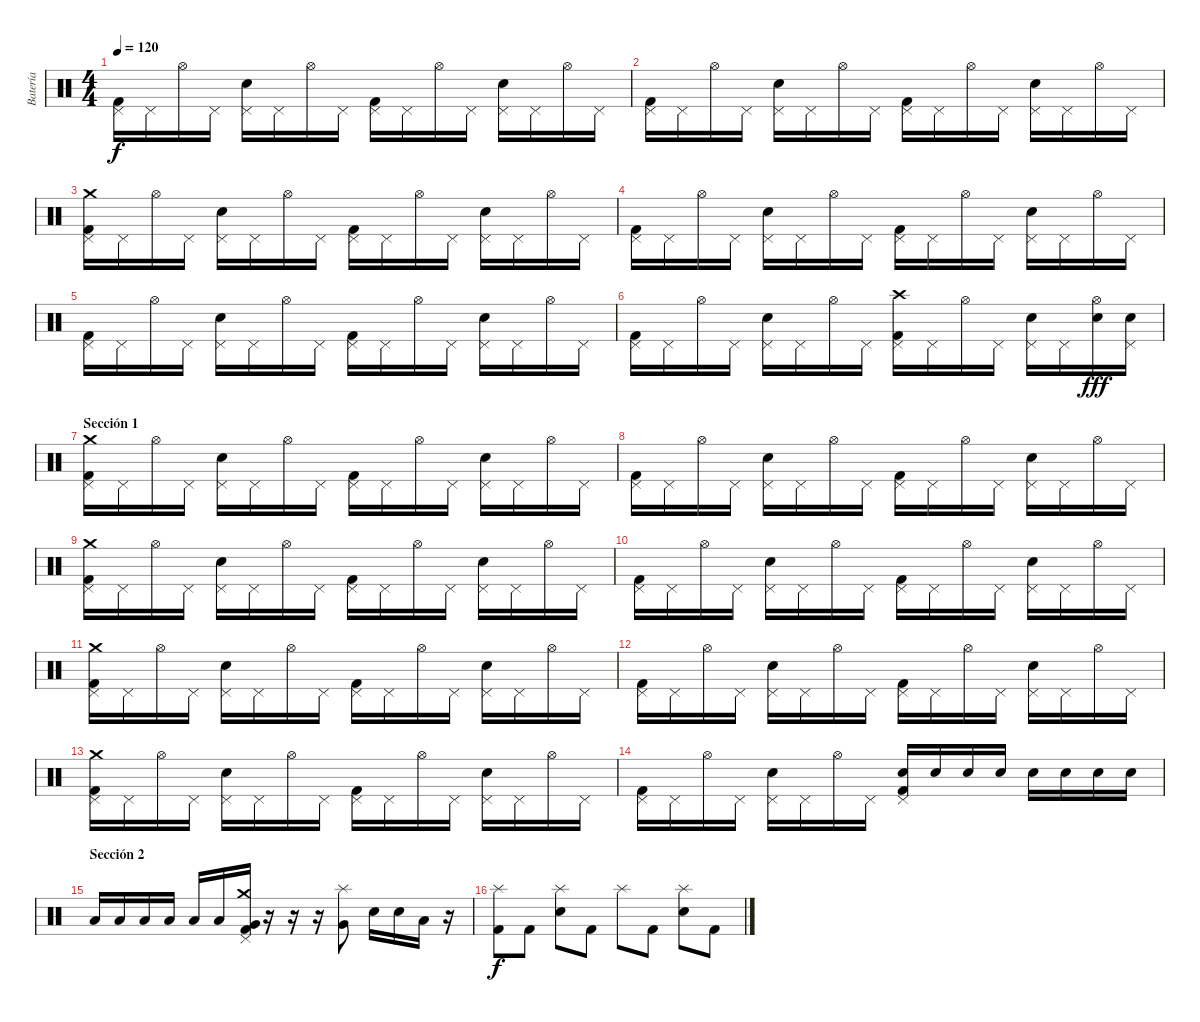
\track ("Batería" "Batería") {instrument percussion}
\staff {score}
\articulation defaults
\ts (4 4)
\tempo 120
\clef neutral
\ks c
("Pedal Hi-Hat (hit)" "Kick (hit) 2").16{dy f} "Pedal Hi-Hat (hit)".16 "Hi-Hat (open)".16 "Pedal Hi-Hat (hit)".16 ("Pedal Hi-Hat (hit)" "Electric Snare (hit)").16 "Pedal Hi-Hat (hit)".16 "Hi-Hat (open)".16 "Pedal Hi-Hat (hit)".16 ("Pedal Hi-Hat (hit)" "Kick (hit) 2").16 "Pedal Hi-Hat (hit)".16 "Hi-Hat (open)".16 "Pedal Hi-Hat (hit)".16 ("Pedal Hi-Hat (hit)" "Electric Snare (hit)").16 "Pedal Hi-Hat (hit)".16 "Hi-Hat (open)".16 "Pedal Hi-Hat (hit)".16 |
("Pedal Hi-Hat (hit)" "Kick (hit) 2").16 "Pedal Hi-Hat (hit)".16 "Hi-Hat (open)".16 "Pedal Hi-Hat (hit)".16 ("Pedal Hi-Hat (hit)" "Electric Snare (hit)").16 "Pedal Hi-Hat (hit)".16 "Hi-Hat (open)".16 "Pedal Hi-Hat (hit)".16 ("Pedal Hi-Hat (hit)" "Kick (hit) 2").16 "Pedal Hi-Hat (hit)".16 "Hi-Hat (open)".16 "Pedal Hi-Hat (hit)".16 ("Pedal Hi-Hat (hit)" "Electric Snare (hit)").16 "Pedal Hi-Hat (hit)".16 "Hi-Hat (open)".16 "Pedal Hi-Hat (hit)".16 |
("Pedal Hi-Hat (hit)" "Crash medium (hit)" "Kick (hit) 2").16 "Pedal Hi-Hat (hit)".16 "Hi-Hat (open)".16 "Pedal Hi-Hat (hit)".16 ("Pedal Hi-Hat (hit)" "Electric Snare (hit)").16 "Pedal Hi-Hat (hit)".16 "Hi-Hat (open)".16 "Pedal Hi-Hat (hit)".16 ("Pedal Hi-Hat (hit)" "Kick (hit) 2").16 "Pedal Hi-Hat (hit)".16 "Hi-Hat (open)".16 "Pedal Hi-Hat (hit)".16 ("Pedal Hi-Hat (hit)" "Electric Snare (hit)").16 "Pedal Hi-Hat (hit)".16 "Hi-Hat (open)".16 "Pedal Hi-Hat (hit)".16 |
("Pedal Hi-Hat (hit)" "Kick (hit) 2").16 "Pedal Hi-Hat (hit)".16 "Hi-Hat (open)".16 "Pedal Hi-Hat (hit)".16 ("Pedal Hi-Hat (hit)" "Electric Snare (hit)").16 "Pedal Hi-Hat (hit)".16 "Hi-Hat (open)".16 "Pedal Hi-Hat (hit)".16 ("Pedal Hi-Hat (hit)" "Kick (hit) 2").16 "Pedal Hi-Hat (hit)".16 "Hi-Hat (open)".16 "Pedal Hi-Hat (hit)".16 ("Pedal Hi-Hat (hit)" "Electric Snare (hit)").16 "Pedal Hi-Hat (hit)".16 "Hi-Hat (open)".16 "Pedal Hi-Hat (hit)".16 |
("Pedal Hi-Hat (hit)" "Kick (hit) 2").16 "Pedal Hi-Hat (hit)".16 "Hi-Hat (open)".16 "Pedal Hi-Hat (hit)".16 ("Pedal Hi-Hat (hit)" "Electric Snare (hit)").16 "Pedal Hi-Hat (hit)".16 "Hi-Hat (open)".16 "Pedal Hi-Hat (hit)".16 ("Pedal Hi-Hat (hit)" "Kick (hit) 2").16 "Pedal Hi-Hat (hit)".16 "Hi-Hat (open)".16 "Pedal Hi-Hat (hit)".16 ("Pedal Hi-Hat (hit)" "Electric Snare (hit)").16 "Pedal Hi-Hat (hit)".16 "Hi-Hat (open)".16 "Pedal Hi-Hat (hit)".16 |
("Pedal Hi-Hat (hit)" "Kick (hit) 2").16 "Pedal Hi-Hat (hit)".16 "Hi-Hat (open)".16 "Pedal Hi-Hat (hit)".16 ("Pedal Hi-Hat (hit)" "Electric Snare (hit)").16 "Pedal Hi-Hat (hit)".16 "Hi-Hat (open)".16 "Pedal Hi-Hat (hit)".16 ("Pedal Hi-Hat (hit)" "Crash high (hit)" "Kick (hit) 2").16 "Pedal Hi-Hat (hit)".16 "Hi-Hat (open)".16 "Pedal Hi-Hat (hit)".16 ("Pedal Hi-Hat (hit)" "Electric Snare (hit)").16 "Pedal Hi-Hat (hit)".16 ("Hi-Hat (open)" "Electric Snare (hit)").16{dy fff} ("Pedal Hi-Hat (hit)" "Electric Snare (hit)").16 |
\section ("" "Sección 1")
("Pedal Hi-Hat (hit)" "Crash medium (hit)" "Kick (hit) 2").16 "Pedal Hi-Hat (hit)".16 "Hi-Hat (open)".16 "Pedal Hi-Hat (hit)".16 ("Pedal Hi-Hat (hit)" "Electric Snare (hit)").16 "Pedal Hi-Hat (hit)".16 "Hi-Hat (open)".16 "Pedal Hi-Hat (hit)".16 ("Pedal Hi-Hat (hit)" "Kick (hit) 2").16 "Pedal Hi-Hat (hit)".16 "Hi-Hat (open)".16 "Pedal Hi-Hat (hit)".16 ("Pedal Hi-Hat (hit)" "Electric Snare (hit)").16 "Pedal Hi-Hat (hit)".16 "Hi-Hat (open)".16 "Pedal Hi-Hat (hit)".16 |
("Pedal Hi-Hat (hit)" "Kick (hit) 2").16 "Pedal Hi-Hat (hit)".16 "Hi-Hat (open)".16 "Pedal Hi-Hat (hit)".16 ("Pedal Hi-Hat (hit)" "Electric Snare (hit)").16 "Pedal Hi-Hat (hit)".16 "Hi-Hat (open)".16 "Pedal Hi-Hat (hit)".16 ("Pedal Hi-Hat (hit)" "Kick (hit) 2").16 "Pedal Hi-Hat (hit)".16 "Hi-Hat (open)".16 "Pedal Hi-Hat (hit)".16 ("Pedal Hi-Hat (hit)" "Electric Snare (hit)").16 "Pedal Hi-Hat (hit)".16 "Hi-Hat (open)".16 "Pedal Hi-Hat (hit)".16 |
("Pedal Hi-Hat (hit)" "Crash medium (hit)" "Kick (hit) 2").16 "Pedal Hi-Hat (hit)".16 "Hi-Hat (open)".16 "Pedal Hi-Hat (hit)".16 ("Pedal Hi-Hat (hit)" "Electric Snare (hit)").16 "Pedal Hi-Hat (hit)".16 "Hi-Hat (open)".16 "Pedal Hi-Hat (hit)".16 ("Pedal Hi-Hat (hit)" "Kick (hit) 2").16 "Pedal Hi-Hat (hit)".16 "Hi-Hat (open)".16 "Pedal Hi-Hat (hit)".16 ("Pedal Hi-Hat (hit)" "Electric Snare (hit)").16 "Pedal Hi-Hat (hit)".16 "Hi-Hat (open)".16 "Pedal Hi-Hat (hit)".16 |
("Pedal Hi-Hat (hit)" "Kick (hit) 2").16 "Pedal Hi-Hat (hit)".16 "Hi-Hat (open)".16 "Pedal Hi-Hat (hit)".16 ("Pedal Hi-Hat (hit)" "Electric Snare (hit)").16 "Pedal Hi-Hat (hit)".16 "Hi-Hat (open)".16 "Pedal Hi-Hat (hit)".16 ("Pedal Hi-Hat (hit)" "Kick (hit) 2").16 "Pedal Hi-Hat (hit)".16 "Hi-Hat (open)".16 "Pedal Hi-Hat (hit)".16 ("Pedal Hi-Hat (hit)" "Electric Snare (hit)").16 "Pedal Hi-Hat (hit)".16 "Hi-Hat (open)".16 "Pedal Hi-Hat (hit)".16 |
("Pedal Hi-Hat (hit)" "Crash medium (hit)" "Kick (hit) 2").16 "Pedal Hi-Hat (hit)".16 "Hi-Hat (open)".16 "Pedal Hi-Hat (hit)".16 ("Pedal Hi-Hat (hit)" "Electric Snare (hit)").16 "Pedal Hi-Hat (hit)".16 "Hi-Hat (open)".16 "Pedal Hi-Hat (hit)".16 ("Pedal Hi-Hat (hit)" "Kick (hit) 2").16 "Pedal Hi-Hat (hit)".16 "Hi-Hat (open)".16 "Pedal Hi-Hat (hit)".16 ("Pedal Hi-Hat (hit)" "Electric Snare (hit)").16 "Pedal Hi-Hat (hit)".16 "Hi-Hat (open)".16 "Pedal Hi-Hat (hit)".16 |
("Pedal Hi-Hat (hit)" "Kick (hit) 2").16 "Pedal Hi-Hat (hit)".16 "Hi-Hat (open)".16 "Pedal Hi-Hat (hit)".16 ("Pedal Hi-Hat (hit)" "Electric Snare (hit)").16 "Pedal Hi-Hat (hit)".16 "Hi-Hat (open)".16 "Pedal Hi-Hat (hit)".16 ("Pedal Hi-Hat (hit)" "Kick (hit) 2").16 "Pedal Hi-Hat (hit)".16 "Hi-Hat (open)".16 "Pedal Hi-Hat (hit)".16 ("Pedal Hi-Hat (hit)" "Electric Snare (hit)").16 "Pedal Hi-Hat (hit)".16 "Hi-Hat (open)".16 "Pedal Hi-Hat (hit)".16 |
("Pedal Hi-Hat (hit)" "Crash medium (hit)" "Kick (hit) 2").16 "Pedal Hi-Hat (hit)".16 "Hi-Hat (open)".16 "Pedal Hi-Hat (hit)".16 ("Pedal Hi-Hat (hit)" "Electric Snare (hit)").16 "Pedal Hi-Hat (hit)".16 "Hi-Hat (open)".16 "Pedal Hi-Hat (hit)".16 ("Pedal Hi-Hat (hit)" "Kick (hit) 2").16 "Pedal Hi-Hat (hit)".16 "Hi-Hat (open)".16 "Pedal Hi-Hat (hit)".16 ("Pedal Hi-Hat (hit)" "Electric Snare (hit)").16 "Pedal Hi-Hat (hit)".16 "Hi-Hat (open)".16 "Pedal Hi-Hat (hit)".16 |
("Pedal Hi-Hat (hit)" "Kick (hit) 2").16 "Pedal Hi-Hat (hit)".16 "Hi-Hat (open)".16 "Pedal Hi-Hat (hit)".16 ("Pedal Hi-Hat (hit)" "Electric Snare (hit)").16 "Pedal Hi-Hat (hit)".16 "Hi-Hat (open)".16 "Pedal Hi-Hat (hit)".16 ("Pedal Hi-Hat (hit)" "Electric Snare (hit)" "Kick (hit) 2").16 "Electric Snare (hit)".16 "Electric Snare (hit)".16 "Electric Snare (hit)".16 "Electric Snare (hit)".16 "Electric Snare (hit)".16 "Electric Snare (hit)".16 "Electric Snare (hit)".16 |
\section ("" "Sección 2")
"Low Tom (hit)".16 "Low Tom (hit)".16 "Low Tom (hit)".16 "Low Tom (hit)".16 "Low Tom (hit)".16 "Low Tom (hit)".16 ("Pedal Hi-Hat (hit)" "Crash medium (hit)" "Very Low Tom (hit)" "Kick (hit) 2").16 r.16 r.16 r.16 ("Splash (hit)" "Very Low Tom (hit)").8 "Electric Snare (hit)".16 "Electric Snare (hit)".16 "Low Tom (hit)".16 r.16 |
("Splash (hit)" "Kick (hit) 2").8{dy f} "Kick (hit) 2".8 ("Splash (hit)" "Electric Snare (hit)").8 "Kick (hit) 2".8 "Splash (hit)".8 "Kick (hit) 2".8 ("Splash (hit)" "Electric Snare (hit)").8 "Kick (hit) 2".8
